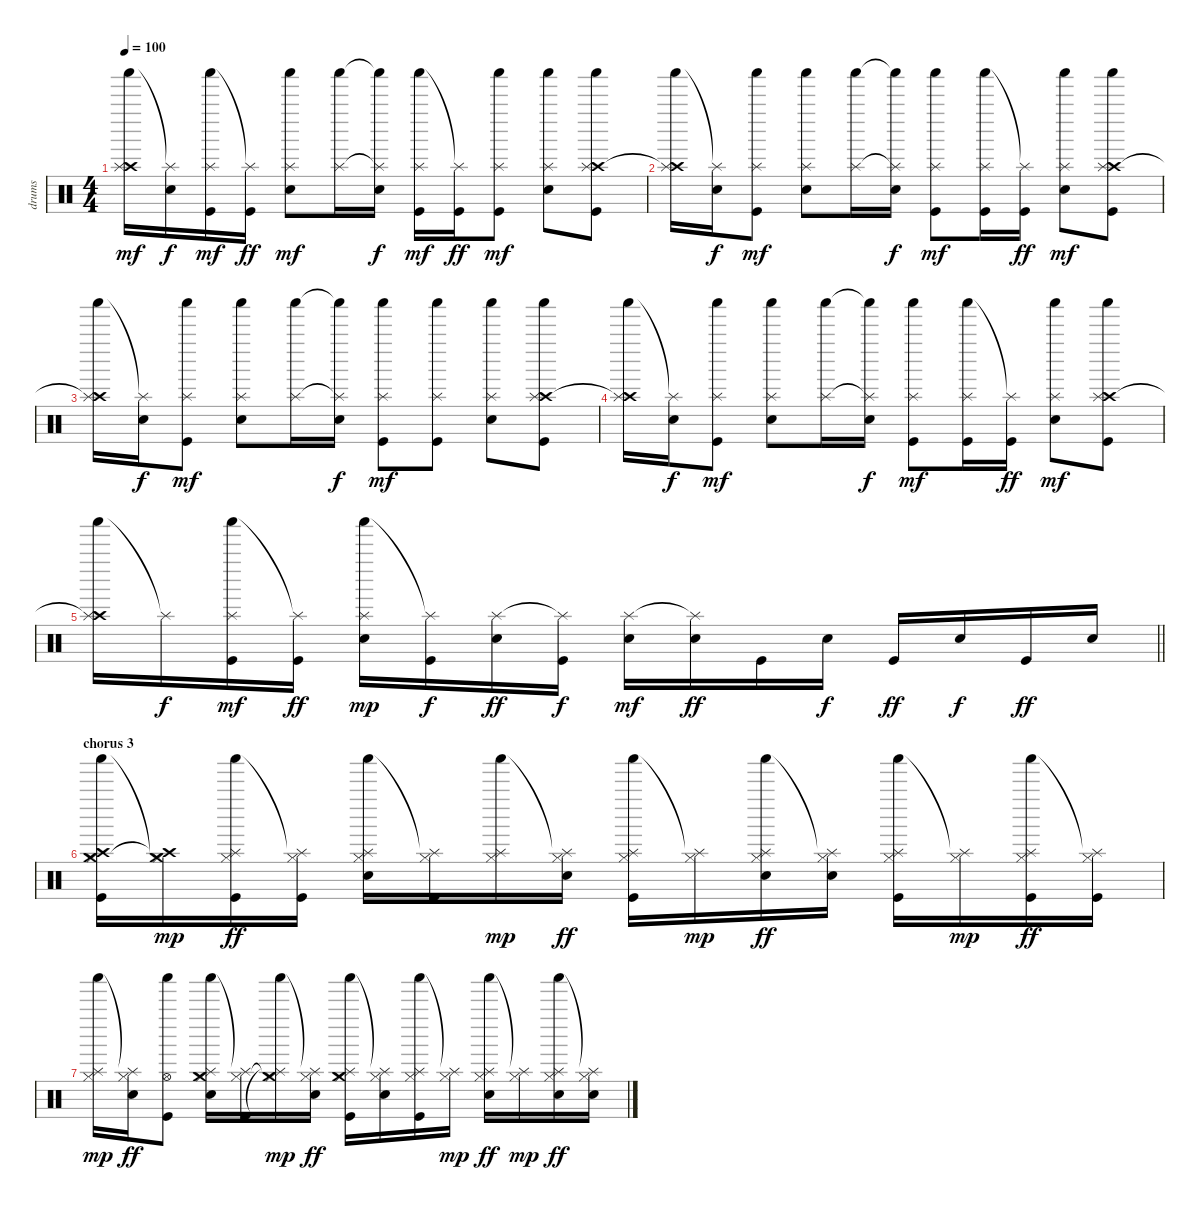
\track ("drums" "drums") {instrument percussion}
\staff {score}
\articulation defaults
\ts (4 4)
\tempo 100
\clef neutral
\ks c
("Shaker (hit)" "Crash high (hit)"{t} "Splash (hit)").16{dy mf} ("Splash (hit)"{t} "Electric Snare (hit)").16{dy f} ("Shaker (hit)" "Splash (hit)" "Kick (hit)").16{dy mf} ("Splash (hit)"{t} "Kick (hit)").16{dy ff} ("Shaker (hit)" "Splash (hit)" "Electric Snare (hit)").8{dy mf} ("Shaker (hit)" "Splash (hit)").16 ("Shaker (hit)"{t} "Splash (hit)"{t} "Electric Snare (hit)").16{dy f} ("Shaker (hit)" "Splash (hit)" "Kick (hit)").16{dy mf} ("Splash (hit)"{t} "Kick (hit)").16{dy ff} ("Shaker (hit)" "Splash (hit)" "Kick (hit)").8{dy mf} ("Shaker (hit)" "Splash (hit)" "Electric Snare (hit)").8 ("Shaker (hit)" "Crash high (hit)" "Splash (hit)" "Kick (hit)").8 |
("Shaker (hit)" "Crash high (hit)"{t} "Splash (hit)").16 ("Splash (hit)"{t} "Electric Snare (hit)").16{dy f} ("Shaker (hit)" "Splash (hit)" "Kick (hit)").8{dy mf} ("Shaker (hit)" "Splash (hit)" "Electric Snare (hit)").8 ("Shaker (hit)" "Splash (hit)").16 ("Shaker (hit)"{t} "Splash (hit)"{t} "Electric Snare (hit)").16{dy f} ("Shaker (hit)" "Splash (hit)" "Kick (hit)").8{dy mf} ("Shaker (hit)" "Splash (hit)" "Kick (hit)").16 ("Splash (hit)"{t} "Kick (hit)").16{dy ff} ("Shaker (hit)" "Splash (hit)" "Electric Snare (hit)").8{dy mf} ("Shaker (hit)" "Crash high (hit)" "Splash (hit)" "Kick (hit)").8 |
("Shaker (hit)" "Crash high (hit)"{t} "Splash (hit)").16 ("Splash (hit)"{t} "Electric Snare (hit)").16{dy f} ("Shaker (hit)" "Splash (hit)" "Kick (hit)").8{dy mf} ("Shaker (hit)" "Splash (hit)" "Electric Snare (hit)").8 ("Shaker (hit)" "Splash (hit)").16 ("Shaker (hit)"{t} "Splash (hit)"{t} "Electric Snare (hit)").16{dy f} ("Shaker (hit)" "Splash (hit)" "Kick (hit)").8{dy mf} ("Shaker (hit)" "Splash (hit)" "Kick (hit)").8 ("Shaker (hit)" "Splash (hit)" "Electric Snare (hit)").8 ("Shaker (hit)" "Crash high (hit)" "Splash (hit)" "Kick (hit)").8 |
("Shaker (hit)" "Crash high (hit)"{t} "Splash (hit)").16 ("Splash (hit)"{t} "Electric Snare (hit)").16{dy f} ("Shaker (hit)" "Splash (hit)" "Kick (hit)").8{dy mf} ("Shaker (hit)" "Splash (hit)" "Electric Snare (hit)").8 ("Shaker (hit)" "Splash (hit)").16 ("Shaker (hit)"{t} "Splash (hit)"{t} "Electric Snare (hit)").16{dy f} ("Shaker (hit)" "Splash (hit)" "Kick (hit)").8{dy mf} ("Shaker (hit)" "Splash (hit)" "Kick (hit)").16 ("Splash (hit)"{t} "Kick (hit)").16{dy ff} ("Shaker (hit)" "Splash (hit)" "Electric Snare (hit)").8{dy mf} ("Shaker (hit)" "Crash high (hit)" "Splash (hit)" "Kick (hit)").8 |
\barLineRight lightlight
("Shaker (hit)" "Crash high (hit)"{t} "Splash (hit)").16 "Splash (hit)"{t}.16{dy f} ("Shaker (hit)" "Splash (hit)" "Kick (hit)").16{dy mf} ("Splash (hit)"{t} "Kick (hit)").16{dy ff} ("Shaker (hit)" "Splash (hit)" "Electric Snare (hit)").16{dy mp} ("Splash (hit)"{t} "Kick (hit)").16{dy f} ("Splash (hit)" "Electric Snare (hit)").16{dy ff} ("Splash (hit)"{t} "Kick (hit)").16{dy f} ("Splash (hit)" "Electric Snare (hit)").16{dy mf} ("Splash (hit)"{t} "Electric Snare (hit)").16{dy ff} "Kick (hit)".16 "Electric Snare (hit)".16{dy f} "Kick (hit)".16{dy ff} "Electric Snare (hit)".16{dy f} "Kick (hit)".16{dy ff} "Electric Snare (hit)".16 |
\section ("" "chorus 3")
("Shaker (hit)" "Crash medium (hit)" "Crash high (hit)" "Hi-Hat (closed)" "Kick (hit)").16 ("Crash medium (hit)"{t} "Crash high (hit)"{t} "Hi-Hat (closed)").16{dy mp} ("Shaker (hit)" "Splash (hit)" "Hi-Hat (closed)" "Kick (hit)").16{dy ff} ("Splash (hit)"{t} "Hi-Hat (closed)" "Kick (hit)").16 ("Shaker (hit)" "Splash (hit)" "Hi-Hat (closed)" "Electric Snare (hit)").16 ("Splash (hit)"{t} "Hi-Hat (closed)" "Kick (hit)").16 ("Shaker (hit)" "Splash (hit)" "Hi-Hat (closed)").16{dy mp} ("Splash (hit)"{t} "Hi-Hat (closed)" "Electric Snare (hit)").16{dy ff} ("Shaker (hit)" "Splash (hit)" "Hi-Hat (closed)" "Kick (hit)").16 ("Splash (hit)"{t} "Hi-Hat (closed)").16{dy mp} ("Shaker (hit)" "Splash (hit)" "Hi-Hat (closed)" "Electric Snare (hit)").16{dy ff} ("Splash (hit)"{t} "Hi-Hat (closed)" "Electric Snare (hit)").16 ("Shaker (hit)" "Splash (hit)" "Hi-Hat (closed)" "Kick (hit)").16 ("Splash (hit)"{t} "Hi-Hat (closed)").16{dy mp} ("Shaker (hit)" "Splash (hit)" "Hi-Hat (closed)" "Kick (hit)").16{dy ff} ("Splash (hit)"{t} "Hi-Hat (closed)" "Kick (hit)").16 |
("Shaker (hit)" "Splash (hit)" "Hi-Hat (closed)").16{dy mp} ("Splash (hit)"{t} "Hi-Hat (closed)" "Electric Snare (hit)").16{dy ff} ("Shaker (hit)" "Hi-Hat (open)" "Kick (hit)").8 ("Shaker (hit)" "Crash medium (hit)" "Splash (hit)" "Hi-Hat (closed)" "Electric Snare (hit)").16 ("Splash (hit)"{t} "Hi-Hat (closed)" "Kick (hit)").16 ("Shaker (hit)" "Crash medium (hit)"{t} "Splash (hit)"{t} "Hi-Hat (closed)").16{dy mp} ("Splash (hit)"{t} "Hi-Hat (closed)" "Electric Snare (hit)").16{dy ff} ("Shaker (hit)" "Crash medium (hit)" "Splash (hit)" "Hi-Hat (closed)" "Kick (hit)").16 ("Splash (hit)"{t} "Hi-Hat (closed)" "Electric Snare (hit)").16 ("Shaker (hit)" "Splash (hit)" "Hi-Hat (closed)" "Kick (hit)").16 ("Splash (hit)"{t} "Hi-Hat (closed)").16{dy mp} ("Shaker (hit)" "Splash (hit)" "Hi-Hat (closed)" "Electric Snare (hit)").16{dy ff} ("Splash (hit)"{t} "Hi-Hat (closed)").16{dy mp} ("Shaker (hit)" "Splash (hit)" "Hi-Hat (closed)" "Electric Snare (hit)").16{dy ff} ("Splash (hit)"{t} "Hi-Hat (closed)" "Electric Snare (hit)").16
